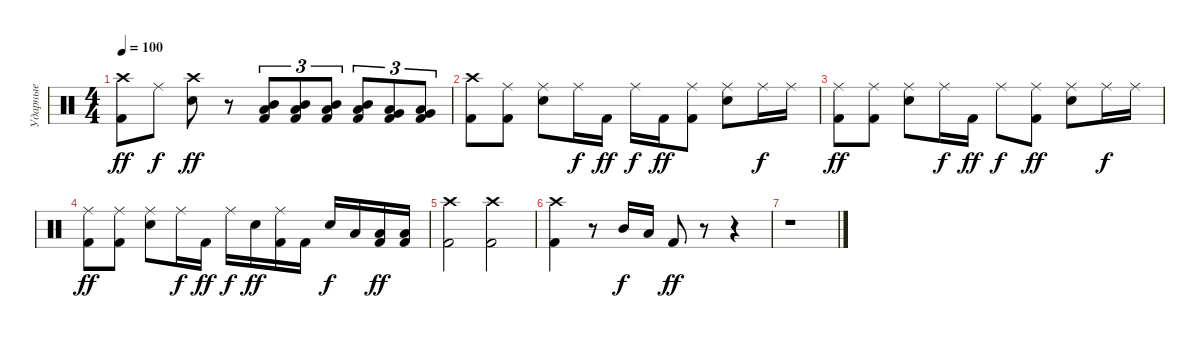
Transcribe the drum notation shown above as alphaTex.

\track ("Ударные" "Ударные") {instrument percussion}
\staff {score}
\articulation defaults
\ts (4 4)
\tempo 100
\clef neutral
\ks c
("Crash high (hit)" "Kick (hit) 2").8{dy ff} "Ride (middle)".8{dy f} ("Crash high (hit)" "Snare (hit) 2").8{dy ff} r.8 ("Mid Tom (hit)" "Low Floor Tom (hit)" "Kick (hit) 2").8{tu (3 2)} ("Mid Tom (hit)" "Low Floor Tom (hit)" "Kick (hit) 2").8{tu (3 2)} ("Mid Tom (hit)" "Low Floor Tom (hit)" "Kick (hit) 2").8{tu (3 2)} ("Mid Tom (hit)" "Low Floor Tom (hit)" "Kick (hit) 2").8{tu (3 2)} ("Very Low Tom (hit)" "Low Floor Tom (hit)" "Kick (hit) 2").8{tu (3 2)} ("Very Low Tom (hit)" "Low Floor Tom (hit)" "Kick (hit) 2").8{tu (3 2)} |
("Crash high (hit)" "Kick (hit) 2").8 ("Ride (middle)" "Kick (hit) 2").8 ("Ride (middle)" "Snare (hit) 2").8 "Ride (middle)".16{dy f} "Kick (hit) 2".16{dy ff} "Ride (middle)".16{dy f} "Kick (hit) 2".16{dy ff} ("Ride (middle)" "Kick (hit) 2").8 ("Ride (middle)" "Snare (hit) 2").8 "Ride (middle)".16{dy f} "Ride (middle)".16 |
("Ride (middle)" "Kick (hit) 2").8{dy ff} ("Ride (middle)" "Kick (hit) 2").8 ("Ride (middle)" "Snare (hit) 2").8 "Ride (middle)".16{dy f} "Kick (hit) 2".16{dy ff} "Ride (middle)".8{dy f} ("Ride (middle)" "Kick (hit) 2").8{dy ff} ("Ride (middle)" "Snare (hit) 2").8 "Ride (middle)".16{dy f} "Ride (middle)".16 |
("Ride (middle)" "Kick (hit) 2").8{dy ff} ("Ride (middle)" "Kick (hit) 2").8 ("Ride (middle)" "Snare (hit) 2").8 "Ride (middle)".16{dy f} "Kick (hit) 2".16{dy ff} "Ride (middle)".16{dy f} "Snare (hit) 2".16{dy ff} ("Ride (middle)" "Kick (hit) 2").16 "Kick (hit) 2".16 "Snare (hit) 2".16{dy f} "Low Floor Tom (hit)".16 ("Low Floor Tom (hit)" "Kick (hit) 2").16{dy ff} ("Low Floor Tom (hit)" "Kick (hit) 2").16 |
("Crash high (hit)" "Kick (hit) 2").2 ("Crash high (hit)" "Kick (hit) 2").2 |
("Crash high (hit)" "Kick (hit) 2").4 r.8 "Mid Tom (hit)".16{dy f} "Low Floor Tom (hit)".16 "Kick (hit) 2".8{dy ff} r.8 r.4 |
r.1
